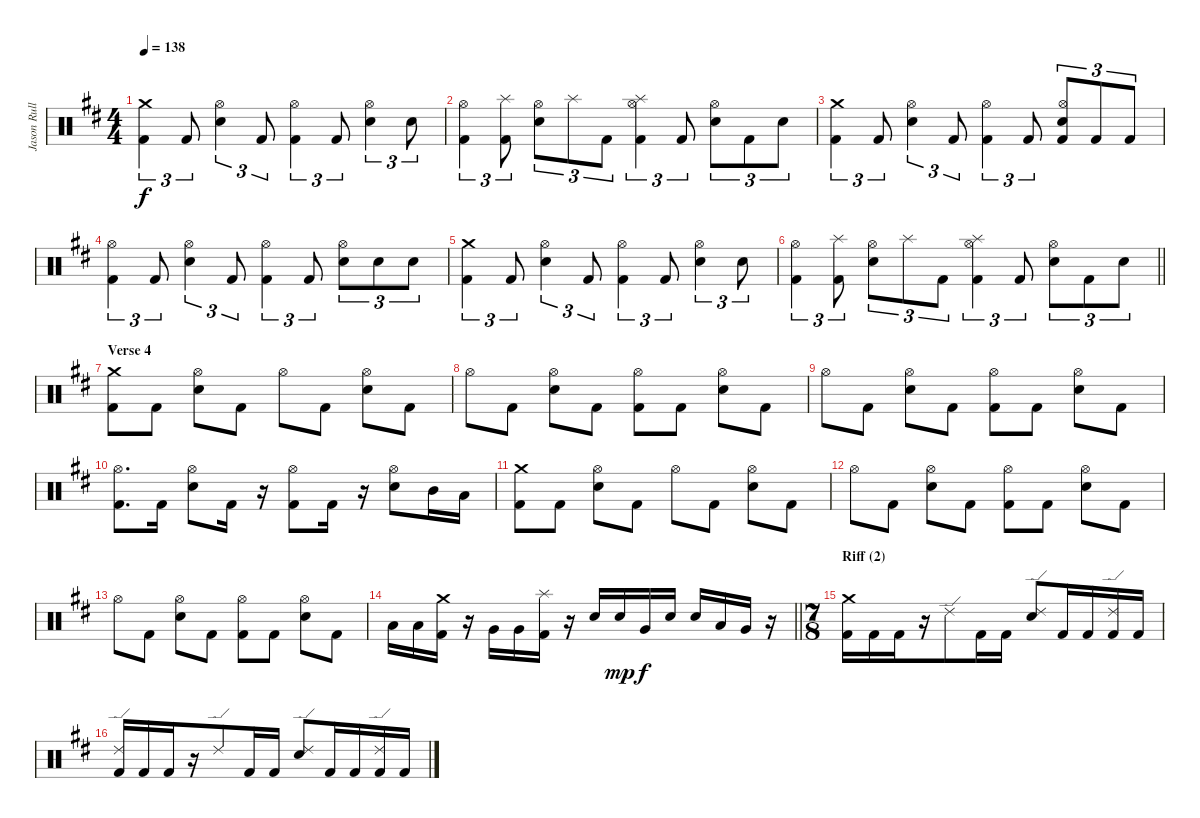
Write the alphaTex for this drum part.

\track ("Jason Rullo (drums)" "Jason Rull") {instrument percussion}
\staff {score}
\articulation defaults
\ts (4 4)
\tempo 138
\clef neutral
\ks bminor
("Crash medium (hit)" "Kick (hit) 2").4{tu (3 2) dy f} "Kick (hit) 2".8{tu (3 2)} ("Hi-Hat (open)" "Electric Snare (hit)").4{tu (3 2)} "Kick (hit) 2".8{tu (3 2)} ("Hi-Hat (open)" "Kick (hit) 2").4{tu (3 2)} "Kick (hit) 2".8{tu (3 2)} ("Hi-Hat (open)" "Electric Snare (hit)").4{tu (3 2)} "Electric Snare (hit)".8{tu (3 2)} |
("Hi-Hat (open)" "Kick (hit) 2").4{tu (3 2)} ("Splash (hit)" "Kick (hit) 2").8{tu (3 2)} ("Hi-Hat (open)" "Electric Snare (hit)").8{tu (3 2)} "Splash (hit)".8{tu (3 2)} "Kick (hit) 2".8{tu (3 2)} ("Splash (hit)" "Hi-Hat (open)" "Kick (hit) 2").4{tu (3 2)} "Kick (hit) 2".8{tu (3 2)} ("Electric Snare (hit)" "Hi-Hat (open)").8{tu (3 2)} "Kick (hit) 2".8{tu (3 2)} "Electric Snare (hit)".8{tu (3 2)} |
("Crash medium (hit)" "Kick (hit) 2").4{tu (3 2)} "Kick (hit) 2".8{tu (3 2)} ("Hi-Hat (open)" "Electric Snare (hit)").4{tu (3 2)} "Kick (hit) 2".8{tu (3 2)} ("Hi-Hat (open)" "Kick (hit) 2").4{tu (3 2)} "Kick (hit) 2".8{tu (3 2)} ("Hi-Hat (open)" "Electric Snare (hit)" "Kick (hit) 2").8{tu (3 2)} "Kick (hit) 2".8{tu (3 2)} "Kick (hit) 2".8{tu (3 2)} |
("Hi-Hat (open)" "Kick (hit) 2").4{tu (3 2)} "Kick (hit) 2".8{tu (3 2)} ("Hi-Hat (open)" "Electric Snare (hit)").4{tu (3 2)} "Kick (hit) 2".8{tu (3 2)} ("Hi-Hat (open)" "Kick (hit) 2").4{tu (3 2)} "Kick (hit) 2".8{tu (3 2)} ("Hi-Hat (open)" "Electric Snare (hit)").8{tu (3 2)} "Electric Snare (hit)".8{tu (3 2)} "Electric Snare (hit)".8{tu (3 2)} |
("Crash medium (hit)" "Kick (hit) 2").4{tu (3 2)} "Kick (hit) 2".8{tu (3 2)} ("Hi-Hat (open)" "Electric Snare (hit)").4{tu (3 2)} "Kick (hit) 2".8{tu (3 2)} ("Hi-Hat (open)" "Kick (hit) 2").4{tu (3 2)} "Kick (hit) 2".8{tu (3 2)} ("Hi-Hat (open)" "Electric Snare (hit)").4{tu (3 2)} "Electric Snare (hit)".8{tu (3 2)} |
\barLineRight lightlight
("Hi-Hat (open)" "Kick (hit) 2").4{tu (3 2)} ("Splash (hit)" "Kick (hit) 2").8{tu (3 2)} ("Hi-Hat (open)" "Electric Snare (hit)").8{tu (3 2)} "Splash (hit)".8{tu (3 2)} "Kick (hit) 2".8{tu (3 2)} ("Splash (hit)" "Hi-Hat (open)" "Kick (hit) 2").4{tu (3 2)} "Kick (hit) 2".8{tu (3 2)} ("Electric Snare (hit)" "Hi-Hat (open)").8{tu (3 2)} "Kick (hit) 2".8{tu (3 2)} "Electric Snare (hit)".8{tu (3 2)} |
\section ("" "Verse 4")
("Crash medium (hit)" "Kick (hit) 2").8 "Kick (hit) 2".8 ("Hi-Hat (open)" "Electric Snare (hit)").8 "Kick (hit) 2".8 "Hi-Hat (open)".8 "Kick (hit) 2".8 ("Hi-Hat (open)" "Electric Snare (hit)").8 "Kick (hit) 2".8 |
"Hi-Hat (open)".8 "Kick (hit) 2".8 ("Hi-Hat (open)" "Electric Snare (hit)").8 "Kick (hit) 2".8 ("Kick (hit) 2" "Hi-Hat (open)").8 "Kick (hit) 2".8 ("Hi-Hat (open)" "Electric Snare (hit)").8 "Kick (hit) 2".8 |
"Hi-Hat (open)".8 "Kick (hit) 2".8 ("Hi-Hat (open)" "Electric Snare (hit)").8 "Kick (hit) 2".8 ("Kick (hit) 2" "Hi-Hat (open)").8 "Kick (hit) 2".8 ("Hi-Hat (open)" "Electric Snare (hit)").8 "Kick (hit) 2".8 |
("Hi-Hat (open)" "Kick (hit) 2").8{d} "Kick (hit) 2".16 ("Hi-Hat (open)" "Electric Snare (hit)").8 "Kick (hit) 2".16 r.16 ("Hi-Hat (open)" "Kick (hit) 2").8 "Kick (hit) 2".16 r.16 ("Hi-Hat (open)" "Electric Snare (hit)").8 "Mid Tom (hit)".16 "Low Tom (hit)".16 |
("Crash medium (hit)" "Kick (hit) 2").8 "Kick (hit) 2".8 ("Hi-Hat (open)" "Electric Snare (hit)").8 "Kick (hit) 2".8 "Hi-Hat (open)".8 "Kick (hit) 2".8 ("Hi-Hat (open)" "Electric Snare (hit)").8 "Kick (hit) 2".8 |
"Hi-Hat (open)".8 "Kick (hit) 2".8 ("Hi-Hat (open)" "Electric Snare (hit)").8 "Kick (hit) 2".8 ("Kick (hit) 2" "Hi-Hat (open)").8 "Kick (hit) 2".8 ("Hi-Hat (open)" "Electric Snare (hit)").8 "Kick (hit) 2".8 |
"Hi-Hat (open)".8 "Kick (hit) 2".8 ("Hi-Hat (open)" "Electric Snare (hit)").8 "Kick (hit) 2".8 ("Kick (hit) 2" "Hi-Hat (open)").8 "Kick (hit) 2".8 ("Hi-Hat (open)" "Electric Snare (hit)").8 "Kick (hit) 2".8 |
\barLineRight lightlight "Low Tom (hit)".16 "Low Tom (hit)".16
("Crash medium (hit)" "Kick (hit) 2").16 r.16 "Very Low Tom (hit)".16 "Very Low Tom (hit)".16 ("Splash (hit)" "Kick (hit) 2").16 r.16 "Electric Snare (hit)".16 "Electric Snare (hit)".16{dy mp} "Very Low Tom (hit)".16{dy f} "Electric Snare (hit)".16 "Electric Snare (hit)".16 "Low Tom (hit)".16 "Very Low Tom (hit)".16 r.16 |
\ts (7 8)
\section ("" "Riff (2)")
("Crash medium (hit)" "Kick (hit) 2").16 "Kick (hit) 2".16 "Kick (hit) 2".16 r.16 "Ride (edge) 2".8 "Kick (hit) 2".16 "Kick (hit) 2".16 ("Ride (edge) 2" "Electric Snare (hit)").8 "Kick (hit) 2".16 "Kick (hit) 2".16 ("Ride (edge) 2" "Kick (hit) 2").16 "Kick (hit) 2".16 |
("Ride (edge) 2" "Kick (hit) 2").16 "Kick (hit) 2".16 "Kick (hit) 2".16 r.16 "Ride (edge) 2".8 "Kick (hit) 2".16 "Kick (hit) 2".16 ("Ride (edge) 2" "Electric Snare (hit)").8 "Kick (hit) 2".16 "Kick (hit) 2".16 ("Ride (edge) 2" "Kick (hit) 2").16 "Kick (hit) 2".16
